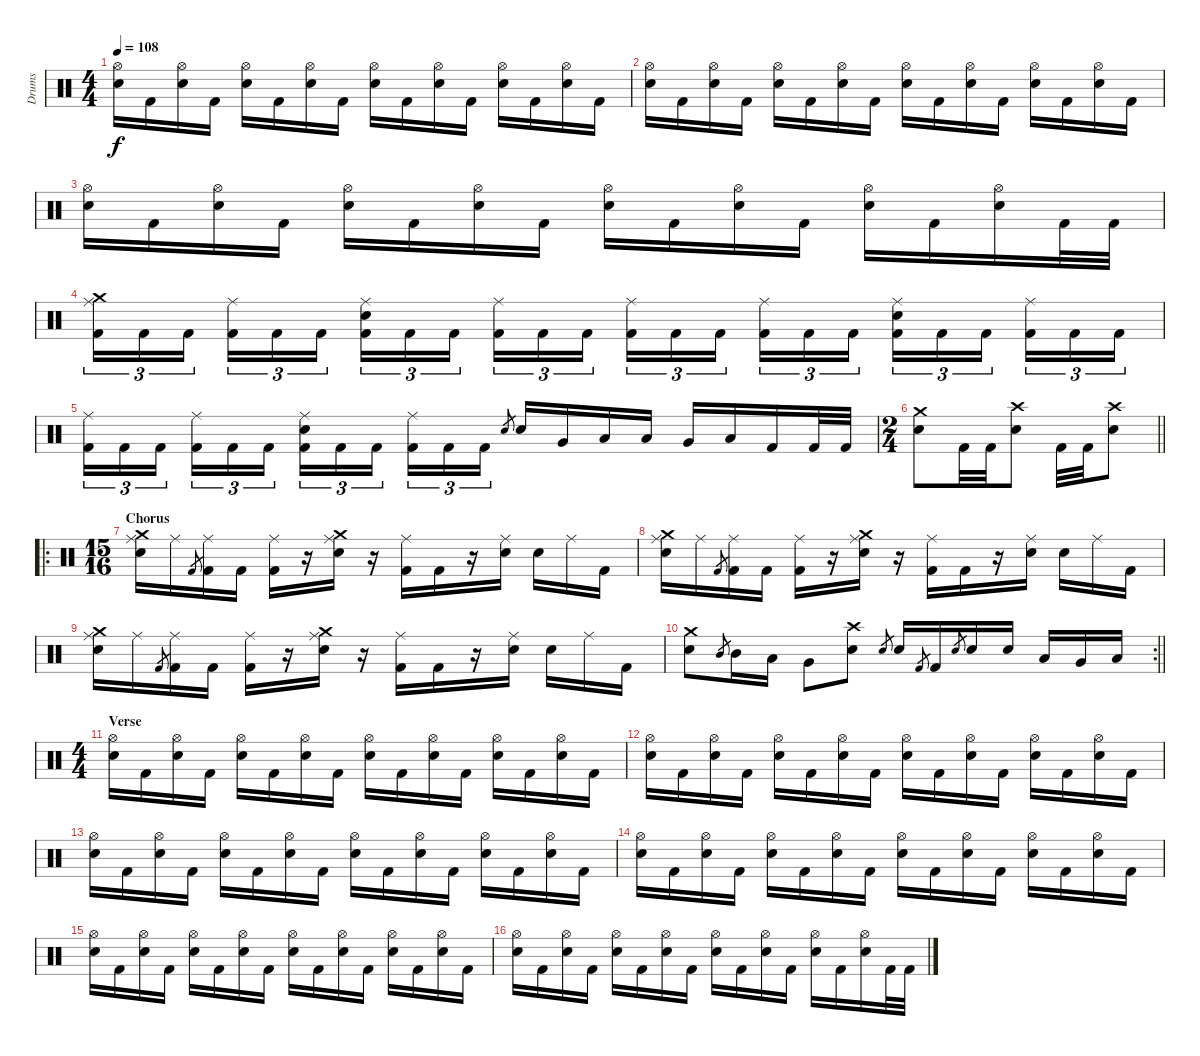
\track ("Drums" "Drums") {instrument percussion}
\staff {score}
\articulation defaults
\ts (4 4)
\tempo 108
\clef neutral
\ks c
("Hi-Hat (open)" "Electric Snare (hit)").16{dy f} "Kick (hit) 2".16 ("Hi-Hat (open)" "Electric Snare (hit)").16 "Kick (hit) 2".16 ("Hi-Hat (open)" "Electric Snare (hit)").16 "Kick (hit) 2".16 ("Hi-Hat (open)" "Electric Snare (hit)").16 "Kick (hit) 2".16 ("Hi-Hat (open)" "Electric Snare (hit)").16 "Kick (hit) 2".16 ("Hi-Hat (open)" "Electric Snare (hit)").16 "Kick (hit) 2".16 ("Hi-Hat (open)" "Electric Snare (hit)").16 "Kick (hit) 2".16 ("Hi-Hat (open)" "Electric Snare (hit)").16 "Kick (hit) 2".16 |
("Hi-Hat (open)" "Electric Snare (hit)").16 "Kick (hit) 2".16 ("Hi-Hat (open)" "Electric Snare (hit)").16 "Kick (hit) 2".16 ("Hi-Hat (open)" "Electric Snare (hit)").16 "Kick (hit) 2".16 ("Hi-Hat (open)" "Electric Snare (hit)").16 "Kick (hit) 2".16 ("Hi-Hat (open)" "Electric Snare (hit)").16 "Kick (hit) 2".16 ("Hi-Hat (open)" "Electric Snare (hit)").16 "Kick (hit) 2".16 ("Hi-Hat (open)" "Electric Snare (hit)").16 "Kick (hit) 2".16 ("Hi-Hat (open)" "Electric Snare (hit)").16 "Kick (hit) 2".16 |
("Hi-Hat (open)" "Electric Snare (hit)").16 "Kick (hit) 2".16 ("Hi-Hat (open)" "Electric Snare (hit)").16 "Kick (hit) 2".16 ("Hi-Hat (open)" "Electric Snare (hit)").16 "Kick (hit) 2".16 ("Hi-Hat (open)" "Electric Snare (hit)").16 "Kick (hit) 2".16 ("Hi-Hat (open)" "Electric Snare (hit)").16 "Kick (hit) 2".16 ("Hi-Hat (open)" "Electric Snare (hit)").16 "Kick (hit) 2".16 ("Hi-Hat (open)" "Electric Snare (hit)").16 "Kick (hit) 2".16 ("Hi-Hat (open)" "Electric Snare (hit)").16 "Kick (hit) 2".32 "Kick (hit) 2".32 |
("Crash medium (hit)" "Ride (middle)" "Kick (hit) 2").16{tu (3 2)} "Kick (hit) 2".16{tu (3 2)} "Kick (hit) 2".16{tu (3 2) beam splitsecondary} ("Ride (middle)" "Kick (hit) 2").16{tu (3 2)} "Kick (hit) 2".16{tu (3 2)} "Kick (hit) 2".16{tu (3 2)} ("Ride (middle)" "Electric Snare (hit)" "Kick (hit) 2").16{tu (3 2)} "Kick (hit) 2".16{tu (3 2)} "Kick (hit) 2".16{tu (3 2) beam splitsecondary} ("Ride (middle)" "Kick (hit) 2").16{tu (3 2)} "Kick (hit) 2".16{tu (3 2)} "Kick (hit) 2".16{tu (3 2)} ("Ride (middle)" "Kick (hit) 2").16{tu (3 2)} "Kick (hit) 2".16{tu (3 2)} "Kick (hit) 2".16{tu (3 2) beam splitsecondary} ("Ride (middle)" "Kick (hit) 2").16{tu (3 2)} "Kick (hit) 2".16{tu (3 2)} "Kick (hit) 2".16{tu (3 2)} ("Ride (middle)" "Electric Snare (hit)" "Kick (hit) 2").16{tu (3 2)} "Kick (hit) 2".16{tu (3 2)} "Kick (hit) 2".16{tu (3 2) beam splitsecondary} ("Ride (middle)" "Kick (hit) 2").16{tu (3 2)} "Kick (hit) 2".16{tu (3 2)} "Kick (hit) 2".16{tu (3 2)} |
("Ride (middle)" "Kick (hit) 2").16{tu (3 2)} "Kick (hit) 2".16{tu (3 2)} "Kick (hit) 2".16{tu (3 2) beam splitsecondary} ("Ride (middle)" "Kick (hit) 2").16{tu (3 2)} "Kick (hit) 2".16{tu (3 2)} "Kick (hit) 2".16{tu (3 2)} ("Ride (middle)" "Electric Snare (hit)" "Kick (hit) 2").16{tu (3 2)} "Kick (hit) 2".16{tu (3 2)} "Kick (hit) 2".16{tu (3 2) beam splitsecondary} ("Ride (middle)" "Kick (hit) 2").16{tu (3 2)} "Kick (hit) 2".16{tu (3 2)} "Kick (hit) 2".16{tu (3 2)} "Electric Snare (hit)".8{gr} "Electric Snare (hit)".16 "Very Low Tom (hit)".16 "Low Floor Tom (hit)".16 "Low Tom (hit)".16 "Very Low Tom (hit)".16 "Low Floor Tom (hit)".16 "Kick (hit) 2".16 "Kick (hit) 2".32 "Kick (hit) 2".32 |
\ts (2 4)
\barLineRight lightlight
("Crash medium (hit)" "Electric Snare (hit)").8 "Kick (hit) 2".32 "Kick (hit) 2".32 ("Crash high (hit)" "Electric Snare (hit)").8 "Kick (hit) 2".32 "Kick (hit) 2".32 ("Crash high (hit)" "Electric Snare (hit)").8 |
\ro
\ts (15 16)
\section ("" "Chorus")
("Crash medium (hit)" "Ride (middle)" "Electric Snare (hit)").16 "Ride (middle)".16 "Kick (hit) 2".8{gr} ("Ride (middle)" "Kick (hit) 2").16 "Kick (hit) 2".16 ("Ride (middle)" "Kick (hit) 2").16 r.16 ("Crash medium (hit)" "Ride (middle)" "Electric Snare (hit)").16 r.16 ("Ride (middle)" "Kick (hit) 2").16 "Kick (hit) 2".16 r.16 ("Ride (middle)" "Electric Snare (hit)").16 "Electric Snare (hit)".16 "Ride (middle)".16 "Kick (hit) 2".16 |
("Crash medium (hit)" "Ride (middle)" "Electric Snare (hit)").16 "Ride (middle)".16 "Kick (hit) 2".8{gr} ("Ride (middle)" "Kick (hit) 2").16 "Kick (hit) 2".16 ("Ride (middle)" "Kick (hit) 2").16 r.16 ("Crash medium (hit)" "Ride (middle)" "Electric Snare (hit)").16 r.16 ("Ride (middle)" "Kick (hit) 2").16 "Kick (hit) 2".16 r.16 ("Ride (middle)" "Electric Snare (hit)").16 "Electric Snare (hit)".16 "Ride (middle)".16 "Kick (hit) 2".16 |
("Crash medium (hit)" "Ride (middle)" "Electric Snare (hit)").16 "Ride (middle)".16 "Kick (hit) 2".8{gr} ("Ride (middle)" "Kick (hit) 2").16 "Kick (hit) 2".16 ("Ride (middle)" "Kick (hit) 2").16 r.16 ("Crash medium (hit)" "Ride (middle)" "Electric Snare (hit)").16 r.16 ("Ride (middle)" "Kick (hit) 2").16 "Kick (hit) 2".16 r.16 ("Ride (middle)" "Electric Snare (hit)").16 "Electric Snare (hit)".16 "Ride (middle)".16 "Kick (hit) 2".16 |
\rc 2
\barLineRight lightlight
("Crash medium (hit)" "Electric Snare (hit)").8 "Mid Tom (hit)".8{gr} "Mid Tom (hit)".16 "Low Tom (hit)".16 "Very Low Tom (hit)".8 ("Crash high (hit)" "Electric Snare (hit)").8 "Electric Snare (hit)".8{gr} "Electric Snare (hit)".16 "Kick (hit) 2".8{gr} "Kick (hit) 2".16 "Electric Snare (hit)".8{gr} "Electric Snare (hit)".16 "Electric Snare (hit)".16 "Low Tom (hit)".16 "Very Low Tom (hit)".16 "Low Floor Tom (hit)".16 |
\ts (4 4)
\section ("" "Verse")
("Hi-Hat (open)" "Electric Snare (hit)").16 "Kick (hit) 2".16 ("Hi-Hat (open)" "Electric Snare (hit)").16 "Kick (hit) 2".16 ("Hi-Hat (open)" "Electric Snare (hit)").16 "Kick (hit) 2".16 ("Hi-Hat (open)" "Electric Snare (hit)").16 "Kick (hit) 2".16 ("Hi-Hat (open)" "Electric Snare (hit)").16 "Kick (hit) 2".16 ("Hi-Hat (open)" "Electric Snare (hit)").16 "Kick (hit) 2".16 ("Hi-Hat (open)" "Electric Snare (hit)").16 "Kick (hit) 2".16 ("Hi-Hat (open)" "Electric Snare (hit)").16 "Kick (hit) 2".16 |
("Hi-Hat (open)" "Electric Snare (hit)").16 "Kick (hit) 2".16 ("Hi-Hat (open)" "Electric Snare (hit)").16 "Kick (hit) 2".16 ("Hi-Hat (open)" "Electric Snare (hit)").16 "Kick (hit) 2".16 ("Hi-Hat (open)" "Electric Snare (hit)").16 "Kick (hit) 2".16 ("Hi-Hat (open)" "Electric Snare (hit)").16 "Kick (hit) 2".16 ("Hi-Hat (open)" "Electric Snare (hit)").16 "Kick (hit) 2".16 ("Hi-Hat (open)" "Electric Snare (hit)").16 "Kick (hit) 2".16 ("Hi-Hat (open)" "Electric Snare (hit)").16 "Kick (hit) 2".16 |
("Hi-Hat (open)" "Electric Snare (hit)").16 "Kick (hit) 2".16 ("Hi-Hat (open)" "Electric Snare (hit)").16 "Kick (hit) 2".16 ("Hi-Hat (open)" "Electric Snare (hit)").16 "Kick (hit) 2".16 ("Hi-Hat (open)" "Electric Snare (hit)").16 "Kick (hit) 2".16 ("Hi-Hat (open)" "Electric Snare (hit)").16 "Kick (hit) 2".16 ("Hi-Hat (open)" "Electric Snare (hit)").16 "Kick (hit) 2".16 ("Hi-Hat (open)" "Electric Snare (hit)").16 "Kick (hit) 2".16 ("Hi-Hat (open)" "Electric Snare (hit)").16 "Kick (hit) 2".16 |
("Hi-Hat (open)" "Electric Snare (hit)").16 "Kick (hit) 2".16 ("Hi-Hat (open)" "Electric Snare (hit)").16 "Kick (hit) 2".16 ("Hi-Hat (open)" "Electric Snare (hit)").16 "Kick (hit) 2".16 ("Hi-Hat (open)" "Electric Snare (hit)").16 "Kick (hit) 2".16 ("Hi-Hat (open)" "Electric Snare (hit)").16 "Kick (hit) 2".16 ("Hi-Hat (open)" "Electric Snare (hit)").16 "Kick (hit) 2".16 ("Hi-Hat (open)" "Electric Snare (hit)").16 "Kick (hit) 2".16 ("Hi-Hat (open)" "Electric Snare (hit)").16 "Kick (hit) 2".16 |
("Hi-Hat (open)" "Electric Snare (hit)").16 "Kick (hit) 2".16 ("Hi-Hat (open)" "Electric Snare (hit)").16 "Kick (hit) 2".16 ("Hi-Hat (open)" "Electric Snare (hit)").16 "Kick (hit) 2".16 ("Hi-Hat (open)" "Electric Snare (hit)").16 "Kick (hit) 2".16 ("Hi-Hat (open)" "Electric Snare (hit)").16 "Kick (hit) 2".16 ("Hi-Hat (open)" "Electric Snare (hit)").16 "Kick (hit) 2".16 ("Hi-Hat (open)" "Electric Snare (hit)").16 "Kick (hit) 2".16 ("Hi-Hat (open)" "Electric Snare (hit)").16 "Kick (hit) 2".16 |
("Hi-Hat (open)" "Electric Snare (hit)").16 "Kick (hit) 2".16 ("Hi-Hat (open)" "Electric Snare (hit)").16 "Kick (hit) 2".16 ("Hi-Hat (open)" "Electric Snare (hit)").16 "Kick (hit) 2".16 ("Hi-Hat (open)" "Electric Snare (hit)").16 "Kick (hit) 2".16 ("Hi-Hat (open)" "Electric Snare (hit)").16 "Kick (hit) 2".16 ("Hi-Hat (open)" "Electric Snare (hit)").16 "Kick (hit) 2".16 ("Hi-Hat (open)" "Electric Snare (hit)").16 "Kick (hit) 2".16 ("Hi-Hat (open)" "Electric Snare (hit)").16 "Kick (hit) 2".32 "Kick (hit) 2".32
